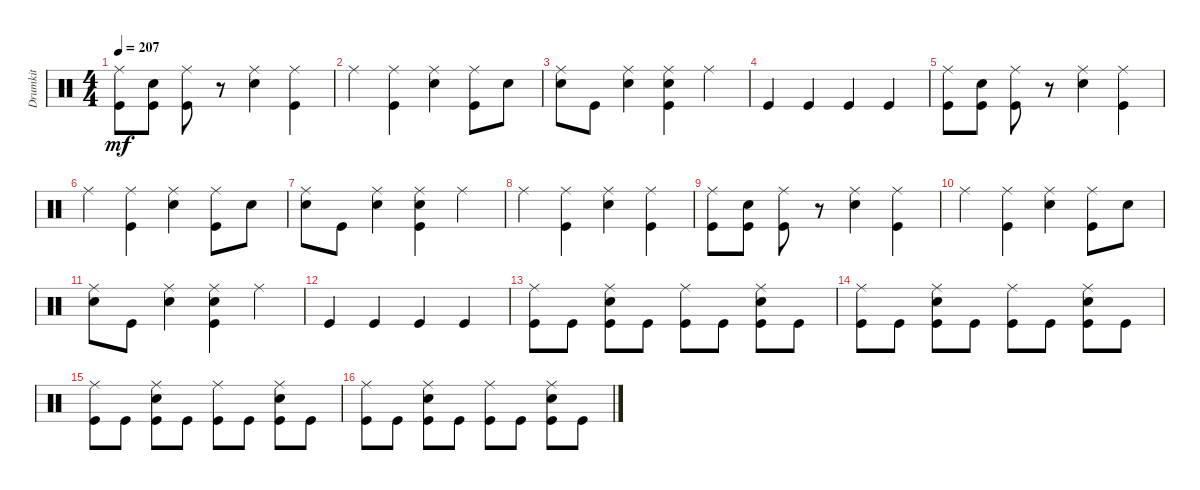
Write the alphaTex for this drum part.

\track ("Drumkit" "Drumkit") {instrument percussion}
\staff {score}
\articulation defaults
\ts (4 4)
\tempo 207
\clef neutral
\ks c
("Ride (middle)" "Kick (hit)").8{dy mf} ("Snare (hit) 2" "Kick (hit)").8 ("Ride (middle)" "Kick (hit)").8 r.8 ("Snare (hit) 2" "Ride (middle)").4 ("Ride (middle)" "Kick (hit)").4 |
"Ride (middle)".4 ("Ride (middle)" "Kick (hit)").4 ("Ride (middle)" "Snare (hit) 2").4 ("Kick (hit)" "Ride (middle)").8 "Snare (hit) 2".8 |
("Ride (middle)" "Snare (hit) 2").8 "Kick (hit)".8 ("Ride (middle)" "Snare (hit) 2").4 ("Ride (middle)" "Kick (hit)" "Snare (hit) 2").4 "Ride (middle)".4 |
"Kick (hit)".4 "Kick (hit)".4 "Kick (hit)".4 "Kick (hit)".4 |
("Ride (middle)" "Kick (hit)").8 ("Snare (hit) 2" "Kick (hit)").8 ("Ride (middle)" "Kick (hit)").8 r.8 ("Snare (hit) 2" "Ride (middle)").4 ("Ride (middle)" "Kick (hit)").4 |
"Ride (middle)".4 ("Ride (middle)" "Kick (hit)").4 ("Ride (middle)" "Snare (hit) 2").4 ("Kick (hit)" "Ride (middle)").8 "Snare (hit) 2".8 |
("Ride (middle)" "Snare (hit) 2").8 "Kick (hit)".8 ("Ride (middle)" "Snare (hit) 2").4 ("Ride (middle)" "Kick (hit)" "Snare (hit) 2").4 "Ride (middle)".4 |
"Ride (middle)".4 ("Ride (middle)" "Kick (hit)").4 ("Ride (middle)" "Snare (hit) 2").4 ("Ride (middle)" "Kick (hit)").4 |
("Ride (middle)" "Kick (hit)").8 ("Snare (hit) 2" "Kick (hit)").8 ("Ride (middle)" "Kick (hit)").8 r.8 ("Snare (hit) 2" "Ride (middle)").4 ("Ride (middle)" "Kick (hit)").4 |
"Ride (middle)".4 ("Ride (middle)" "Kick (hit)").4 ("Ride (middle)" "Snare (hit) 2").4 ("Kick (hit)" "Ride (middle)").8 "Snare (hit) 2".8 |
("Ride (middle)" "Snare (hit) 2").8 "Kick (hit)".8 ("Ride (middle)" "Snare (hit) 2").4 ("Ride (middle)" "Kick (hit)" "Snare (hit) 2").4 "Ride (middle)".4 |
"Kick (hit)".4 "Kick (hit)".4 "Kick (hit)".4 "Kick (hit)".4 |
("Kick (hit)" "Ride (middle)").8 "Kick (hit)".8 ("Snare (hit) 2" "Ride (middle)" "Kick (hit)").8 "Kick (hit)".8 ("Kick (hit)" "Ride (middle)").8 "Kick (hit)".8 ("Snare (hit) 2" "Ride (middle)" "Kick (hit)").8 "Kick (hit)".8 |
("Kick (hit)" "Ride (middle)").8 "Kick (hit)".8 ("Snare (hit) 2" "Ride (middle)" "Kick (hit)").8 "Kick (hit)".8 ("Kick (hit)" "Ride (middle)").8 "Kick (hit)".8 ("Snare (hit) 2" "Ride (middle)" "Kick (hit)").8 "Kick (hit)".8 |
("Kick (hit)" "Ride (middle)").8 "Kick (hit)".8 ("Snare (hit) 2" "Ride (middle)" "Kick (hit)").8 "Kick (hit)".8 ("Kick (hit)" "Ride (middle)").8 "Kick (hit)".8 ("Snare (hit) 2" "Ride (middle)" "Kick (hit)").8 "Kick (hit)".8 |
("Kick (hit)" "Ride (middle)").8 "Kick (hit)".8 ("Snare (hit) 2" "Ride (middle)" "Kick (hit)").8 "Kick (hit)".8 ("Kick (hit)" "Ride (middle)").8 "Kick (hit)".8 ("Snare (hit) 2" "Ride (middle)" "Kick (hit)").8 "Kick (hit)".8
